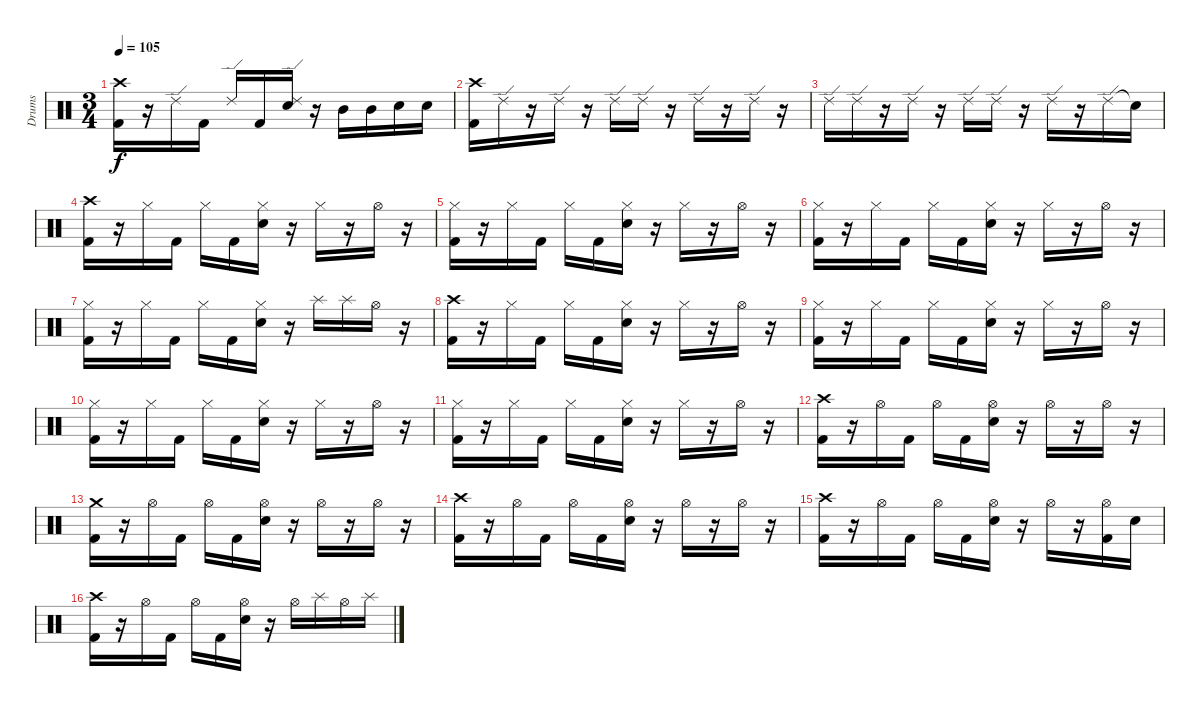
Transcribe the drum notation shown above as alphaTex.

\track ("Drums" "Drums") {instrument percussion}
\staff {score}
\articulation defaults
\ts (3 4)
\tempo 105
\clef neutral
\ks c
("Crash high (hit)" "Kick (hit) 2").16{dy f} r.16 "Ride (edge) 2".16 "Kick (hit) 2".16 "Ride (edge) 2".16 "Kick (hit) 2".16 ("Ride (edge) 2" "Electric Snare (hit)").16 r.16 "Mid Tom (hit)".16 "Mid Tom (hit)".16 "Electric Snare (hit)".16 "Electric Snare (hit)".16 |
("Crash high (hit)" "Kick (hit) 2").16 "Ride (edge) 2".16 r.16 "Ride (edge) 2".16 r.16 "Ride (edge) 2".16 "Ride (edge) 2".16 r.16 "Ride (edge) 2".16 r.16 "Ride (edge) 2".16 r.16 |
"Ride (edge) 2".16 "Ride (edge) 2".16 r.16 "Ride (edge) 2".16 r.16 "Ride (edge) 2".16 "Ride (edge) 2".16 r.16 "Ride (edge) 2".16 r.16 "Ride (edge) 2".16 "Snare (hit)"{t}.16 |
("Crash high (hit)" "Kick (hit) 2").16 r.16 "Hi-Hat (closed)".16 "Kick (hit) 2".16 "Hi-Hat (closed)".16 "Kick (hit) 2".16 ("Hi-Hat (closed)" "Electric Snare (hit)").16 r.16 "Hi-Hat (closed)".16 r.16 "Hi-Hat (open)".16 r.16 |
("Hi-Hat (closed)" "Kick (hit) 2").16 r.16 "Hi-Hat (closed)".16 "Kick (hit) 2".16 "Hi-Hat (closed)".16 "Kick (hit) 2".16 ("Hi-Hat (closed)" "Electric Snare (hit)").16 r.16 "Hi-Hat (closed)".16 r.16 "Hi-Hat (open)".16 r.16 |
("Hi-Hat (closed)" "Kick (hit) 2").16 r.16 "Hi-Hat (closed)".16 "Kick (hit) 2".16 "Hi-Hat (closed)".16 "Kick (hit) 2".16 ("Hi-Hat (closed)" "Electric Snare (hit)").16 r.16 "Hi-Hat (closed)".16 r.16 "Hi-Hat (open)".16 r.16 |
("Hi-Hat (closed)" "Kick (hit) 2").16 r.16 "Hi-Hat (closed)".16 "Kick (hit) 2".16 "Hi-Hat (closed)".16 "Kick (hit) 2".16 ("Hi-Hat (closed)" "Electric Snare (hit)").16 r.16 "Splash (hit)".16 "Splash (hit)".16 "Hi-Hat (open)".16 r.16 |
("Crash high (hit)" "Kick (hit) 2").16 r.16 "Hi-Hat (closed)".16 "Kick (hit) 2".16 "Hi-Hat (closed)".16 "Kick (hit) 2".16 ("Hi-Hat (closed)" "Electric Snare (hit)").16 r.16 "Hi-Hat (closed)".16 r.16 "Hi-Hat (open)".16 r.16 |
("Hi-Hat (closed)" "Kick (hit) 2").16 r.16 "Hi-Hat (closed)".16 "Kick (hit) 2".16 "Hi-Hat (closed)".16 "Kick (hit) 2".16 ("Hi-Hat (closed)" "Electric Snare (hit)").16 r.16 "Hi-Hat (closed)".16 r.16 "Hi-Hat (open)".16 r.16 |
("Hi-Hat (closed)" "Kick (hit) 2").16 r.16 "Hi-Hat (closed)".16 "Kick (hit) 2".16 "Hi-Hat (closed)".16 "Kick (hit) 2".16 ("Hi-Hat (closed)" "Electric Snare (hit)").16 r.16 "Hi-Hat (closed)".16 r.16 "Hi-Hat (open)".16 r.16 |
("Hi-Hat (closed)" "Kick (hit) 2").16 r.16 "Hi-Hat (closed)".16 "Kick (hit) 2".16 "Hi-Hat (closed)".16 "Kick (hit) 2".16 ("Hi-Hat (closed)" "Electric Snare (hit)").16 r.16 "Hi-Hat (closed)".16 r.16 "Hi-Hat (open)".16 r.16 |
("Crash high (hit)" "Kick (hit) 2").16 r.16 "Hi-Hat (open)".16 "Kick (hit) 2".16 "Hi-Hat (open)".16 "Kick (hit) 2".16 ("Hi-Hat (open)" "Electric Snare (hit)").16 r.16 "Hi-Hat (open)".16 r.16 "Hi-Hat (open)".16 r.16 |
("Crash medium (hit)" "Kick (hit) 2").16 r.16 "Hi-Hat (open)".16 "Kick (hit) 2".16 "Hi-Hat (open)".16 "Kick (hit) 2".16 ("Hi-Hat (open)" "Electric Snare (hit)").16 r.16 "Hi-Hat (open)".16 r.16 "Hi-Hat (open)".16 r.16 |
("Crash high (hit)" "Kick (hit) 2").16 r.16 "Hi-Hat (open)".16 "Kick (hit) 2".16 "Hi-Hat (open)".16 "Kick (hit) 2".16 ("Hi-Hat (open)" "Electric Snare (hit)").16 r.16 "Hi-Hat (open)".16 r.16 "Hi-Hat (open)".16 r.16 |
("Crash high (hit)" "Kick (hit) 2").16 r.16 "Hi-Hat (open)".16 "Kick (hit) 2".16 "Hi-Hat (open)".16 "Kick (hit) 2".16 ("Hi-Hat (open)" "Electric Snare (hit)").16 r.16 "Hi-Hat (open)".16 r.16 ("Hi-Hat (open)" "Kick (hit) 2").16 "Electric Snare (hit)".16 |
("Crash high (hit)" "Kick (hit) 2").16 r.16 "Hi-Hat (open)".16 "Kick (hit) 2".16 "Hi-Hat (open)".16 "Kick (hit) 2".16 ("Hi-Hat (open)" "Electric Snare (hit)").16 r.16 "Hi-Hat (open)".16 "Splash (hit)".16 "Hi-Hat (open)".16 "Splash (hit)".16
